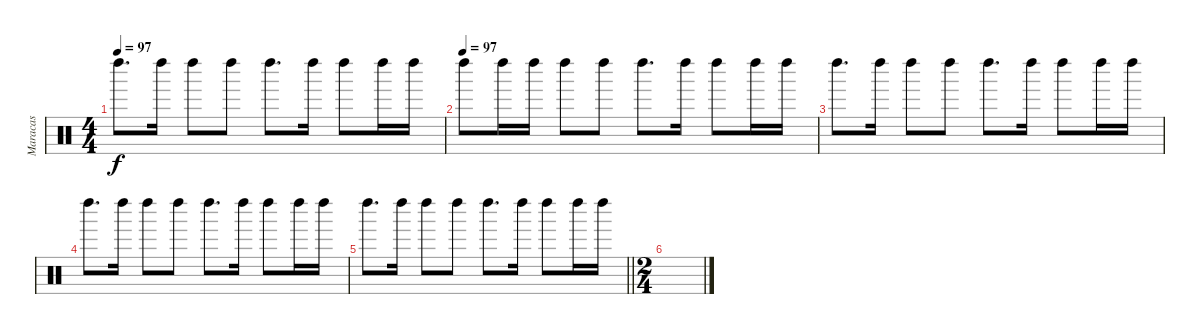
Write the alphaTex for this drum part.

\track ("Maracas" "Maracas") {instrument percussion}
\staff {score}
\articulation defaults
\ts (4 4)
\tempo 97
\clef neutral
\ks c "Left Maraca (hit)".8{d dy f} "Left Maraca (hit)".16 "Left Maraca (hit)".8 "Left Maraca (hit)".8 "Left Maraca (hit)".8{d} "Left Maraca (hit)".16 "Left Maraca (hit)".8 "Left Maraca (hit)".16 "Left Maraca (hit)".16
|
\tempo (97)
"Left Maraca (hit)".8 "Left Maraca (hit)".16 "Left Maraca (hit)".16 "Left Maraca (hit)".8 "Left Maraca (hit)".8 "Left Maraca (hit)".8{d} "Left Maraca (hit)".16 "Left Maraca (hit)".8 "Left Maraca (hit)".16 "Left Maraca (hit)".16 |
"Left Maraca (hit)".8{d} "Left Maraca (hit)".16 "Left Maraca (hit)".8 "Left Maraca (hit)".8 "Left Maraca (hit)".8{d} "Left Maraca (hit)".16 "Left Maraca (hit)".8 "Left Maraca (hit)".16 "Left Maraca (hit)".16 |
"Left Maraca (hit)".8{d} "Left Maraca (hit)".16 "Left Maraca (hit)".8 "Left Maraca (hit)".8 "Left Maraca (hit)".8{d} "Left Maraca (hit)".16 "Left Maraca (hit)".8 "Left Maraca (hit)".16 "Left Maraca (hit)".16 |
\barLineRight lightlight "Left Maraca (hit)".8{d} "Left Maraca (hit)".16 "Left Maraca (hit)".8 "Left Maraca (hit)".8 "Left Maraca (hit)".8{d} "Left Maraca (hit)".16 "Left Maraca (hit)".8 "Left Maraca (hit)".16 "Left Maraca (hit)".16
|
\ts (2 4)
